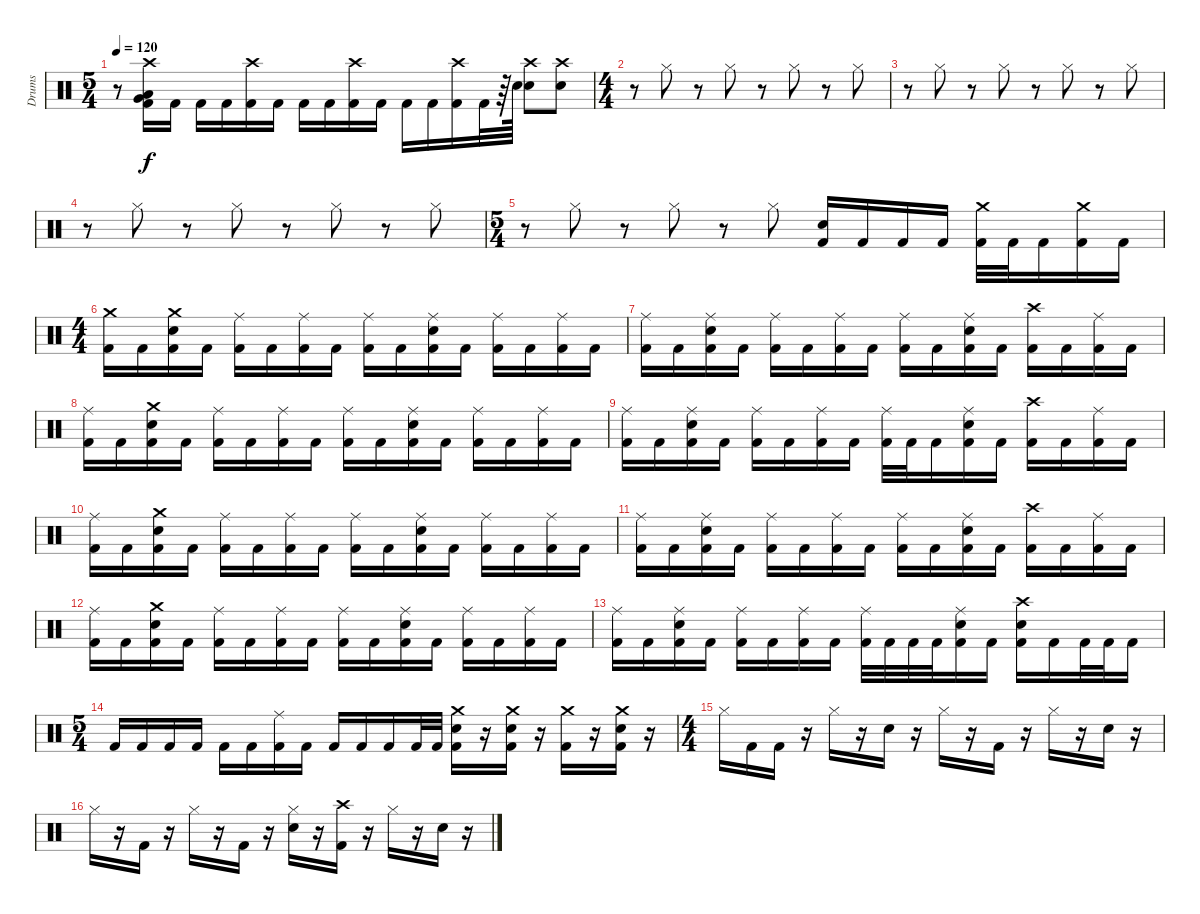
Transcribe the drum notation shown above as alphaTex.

\track ("Drums" "Drums") {instrument percussion}
\staff {score}
\articulation defaults
\ts (5 4)
\tempo 120
\clef neutral
\ks c
r.8{dy f} ("Crash high (hit)" "Low Floor Tom (hit)" "Very Low Tom (hit)" "Kick (hit) 2").16 "Kick (hit) 2".16 "Kick (hit) 2".16 "Kick (hit) 2".16 ("Crash high (hit)" "Kick (hit) 2").16 "Kick (hit) 2".16 "Kick (hit) 2".16 "Kick (hit) 2".16 ("Crash high (hit)" "Kick (hit) 2").16 "Kick (hit) 2".16 "Kick (hit) 2".16 "Kick (hit) 2".16 ("Crash high (hit)" "Kick (hit) 2").16 "Kick (hit) 2".32 r.64 "Snare (hit) 2".64 ("Crash high (hit)" "Snare (hit) 2").8 ("Crash high (hit)" "Snare (hit) 2").8 |
\ts (4 4)
r.8 "Hi-Hat (closed)".8 r.8 "Hi-Hat (closed)".8 r.8 "Hi-Hat (closed)".8 r.8 "Hi-Hat (closed)".8 |
r.8 "Hi-Hat (closed)".8 r.8 "Hi-Hat (closed)".8 r.8 "Hi-Hat (closed)".8 r.8 "Hi-Hat (closed)".8 |
r.8 "Hi-Hat (closed)".8 r.8 "Hi-Hat (closed)".8 r.8 "Hi-Hat (closed)".8 r.8 "Hi-Hat (closed)".8 |
\ts (5 4)
r.8 "Hi-Hat (closed)".8 r.8 "Hi-Hat (closed)".8 r.8 "Hi-Hat (closed)".8 ("Snare (hit) 2" "Kick (hit) 2").16 "Kick (hit) 2".16 "Kick (hit) 2".16 "Kick (hit) 2".16 ("Crash medium (hit)" "Kick (hit) 2").32 "Kick (hit) 2".32 "Kick (hit) 2".16 ("Crash medium (hit)" "Kick (hit) 2").16 "Kick (hit) 2".16 |
\ts (4 4)
("Crash medium (hit)" "Kick (hit) 2").16 "Kick (hit) 2".16 ("Crash medium (hit)" "Snare (hit) 2" "Kick (hit) 2").16 "Kick (hit) 2".16 ("Ride (middle)" "Kick (hit) 2").16 "Kick (hit) 2".16 ("Ride (middle)" "Kick (hit) 2").16 "Kick (hit) 2".16 ("Ride (middle)" "Kick (hit) 2").16 "Kick (hit) 2".16 ("Ride (middle)" "Snare (hit) 2" "Kick (hit) 2").16 "Kick (hit) 2".16 ("Ride (middle)" "Kick (hit) 2").16 "Kick (hit) 2".16 ("Ride (middle)" "Kick (hit) 2").16 "Kick (hit) 2".16 |
("Ride (middle)" "Kick (hit) 2").16 "Kick (hit) 2".16 ("Ride (middle)" "Snare (hit) 2" "Kick (hit) 2").16 "Kick (hit) 2".16 ("Ride (middle)" "Kick (hit) 2").16 "Kick (hit) 2".16 ("Ride (middle)" "Kick (hit) 2").16 "Kick (hit) 2".16 ("Ride (middle)" "Kick (hit) 2").16 "Kick (hit) 2".16 ("Ride (middle)" "Snare (hit) 2" "Kick (hit) 2").16 "Kick (hit) 2".16 ("Crash high (hit)" "Kick (hit) 2").16 "Kick (hit) 2".16 ("Ride (middle)" "Kick (hit) 2").16 "Kick (hit) 2".16 |
("Ride (middle)" "Kick (hit) 2").16 "Kick (hit) 2".16 ("Crash medium (hit)" "Snare (hit) 2" "Kick (hit) 2").16 "Kick (hit) 2".16 ("Ride (middle)" "Kick (hit) 2").16 "Kick (hit) 2".16 ("Ride (middle)" "Kick (hit) 2").16 "Kick (hit) 2".16 ("Ride (middle)" "Kick (hit) 2").16 "Kick (hit) 2".16 ("Ride (middle)" "Snare (hit) 2" "Kick (hit) 2").16 "Kick (hit) 2".16 ("Ride (middle)" "Kick (hit) 2").16 "Kick (hit) 2".16 ("Ride (middle)" "Kick (hit) 2").16 "Kick (hit) 2".16 |
("Ride (middle)" "Kick (hit) 2").16 "Kick (hit) 2".16 ("Ride (middle)" "Snare (hit) 2" "Kick (hit) 2").16 "Kick (hit) 2".16 ("Ride (middle)" "Kick (hit) 2").16 "Kick (hit) 2".16 ("Ride (middle)" "Kick (hit) 2").16 "Kick (hit) 2".16 ("Ride (middle)" "Kick (hit) 2").32 "Kick (hit) 2".32 "Kick (hit) 2".16 ("Ride (middle)" "Snare (hit) 2" "Kick (hit) 2").16 "Kick (hit) 2".16 ("Crash high (hit)" "Kick (hit) 2").16 "Kick (hit) 2".16 ("Ride (middle)" "Kick (hit) 2").16 "Kick (hit) 2".16 |
("Ride (middle)" "Kick (hit) 2").16 "Kick (hit) 2".16 ("Crash medium (hit)" "Snare (hit) 2" "Kick (hit) 2").16 "Kick (hit) 2".16 ("Ride (middle)" "Kick (hit) 2").16 "Kick (hit) 2".16 ("Ride (middle)" "Kick (hit) 2").16 "Kick (hit) 2".16 ("Ride (middle)" "Kick (hit) 2").16 "Kick (hit) 2".16 ("Ride (middle)" "Snare (hit) 2" "Kick (hit) 2").16 "Kick (hit) 2".16 ("Ride (middle)" "Kick (hit) 2").16 "Kick (hit) 2".16 ("Ride (middle)" "Kick (hit) 2").16 "Kick (hit) 2".16 |
("Ride (middle)" "Kick (hit) 2").16 "Kick (hit) 2".16 ("Ride (middle)" "Snare (hit) 2" "Kick (hit) 2").16 "Kick (hit) 2".16 ("Ride (middle)" "Kick (hit) 2").16 "Kick (hit) 2".16 ("Ride (middle)" "Kick (hit) 2").16 "Kick (hit) 2".16 ("Ride (middle)" "Kick (hit) 2").16 "Kick (hit) 2".16 ("Ride (middle)" "Snare (hit) 2" "Kick (hit) 2").16 "Kick (hit) 2".16 ("Crash high (hit)" "Kick (hit) 2").16 "Kick (hit) 2".16 ("Ride (middle)" "Kick (hit) 2").16 "Kick (hit) 2".16 |
("Ride (middle)" "Kick (hit) 2").16 "Kick (hit) 2".16 ("Crash medium (hit)" "Snare (hit) 2" "Kick (hit) 2").16 "Kick (hit) 2".16 ("Ride (middle)" "Kick (hit) 2").16 "Kick (hit) 2".16 ("Ride (middle)" "Kick (hit) 2").16 "Kick (hit) 2".16 ("Ride (middle)" "Kick (hit) 2").16 "Kick (hit) 2".16 ("Ride (middle)" "Snare (hit) 2" "Kick (hit) 2").16 "Kick (hit) 2".16 ("Ride (middle)" "Kick (hit) 2").16 "Kick (hit) 2".16 ("Ride (middle)" "Kick (hit) 2").16 "Kick (hit) 2".16 |
("Ride (middle)" "Kick (hit) 2").16 "Kick (hit) 2".16 ("Ride (middle)" "Snare (hit) 2" "Kick (hit) 2").16 "Kick (hit) 2".16 ("Ride (middle)" "Kick (hit) 2").16 "Kick (hit) 2".16 ("Ride (middle)" "Kick (hit) 2").16 "Kick (hit) 2".16 ("Ride (middle)" "Kick (hit) 2").32 "Kick (hit) 2".32 "Kick (hit) 2".32 "Kick (hit) 2".32 ("Ride (middle)" "Snare (hit) 2" "Kick (hit) 2").16 "Kick (hit) 2".16 ("Crash high (hit)" "Snare (hit) 2" "Kick (hit) 2").16 "Kick (hit) 2".16 "Kick (hit) 2".32 "Kick (hit) 2".32 "Kick (hit) 2".16 |
\ts (5 4)
"Kick (hit) 2".16 "Kick (hit) 2".16 "Kick (hit) 2".16 "Kick (hit) 2".16 "Kick (hit) 2".16 "Kick (hit) 2".16 ("Ride (middle)" "Kick (hit) 2").16 "Kick (hit) 2".16 "Kick (hit) 2".16 "Kick (hit) 2".16 "Kick (hit) 2".16 "Kick (hit) 2".32 "Kick (hit) 2".32 ("Crash medium (hit)" "Snare (hit) 2" "Kick (hit) 2").16 r.16 ("Crash medium (hit)" "Snare (hit) 2" "Kick (hit) 2").16 r.16 ("Crash medium (hit)" "Kick (hit) 2").16 r.16 ("Crash medium (hit)" "Snare (hit) 2" "Kick (hit) 2").16 r.16 |
\ts (4 4)
"Hi-Hat (closed)".16 "Kick (hit) 2".16 "Kick (hit) 2".16 r.16 "Hi-Hat (closed)".16 r.16 "Snare (hit) 2".16 r.16 "Hi-Hat (closed)".16 r.16 "Kick (hit) 2".16 r.16 "Hi-Hat (closed)".16 r.16 "Snare (hit) 2".16 r.16 |
"Hi-Hat (closed)".16 r.16 "Kick (hit) 2".16 r.16 "Hi-Hat (closed)".16 r.16 "Kick (hit) 2".16 r.16 ("Hi-Hat (closed)" "Snare (hit) 2").16 r.16 ("Crash high (hit)" "Kick (hit) 2").16 r.16 "Hi-Hat (closed)".16 r.16 "Snare (hit) 2".16 r.16
